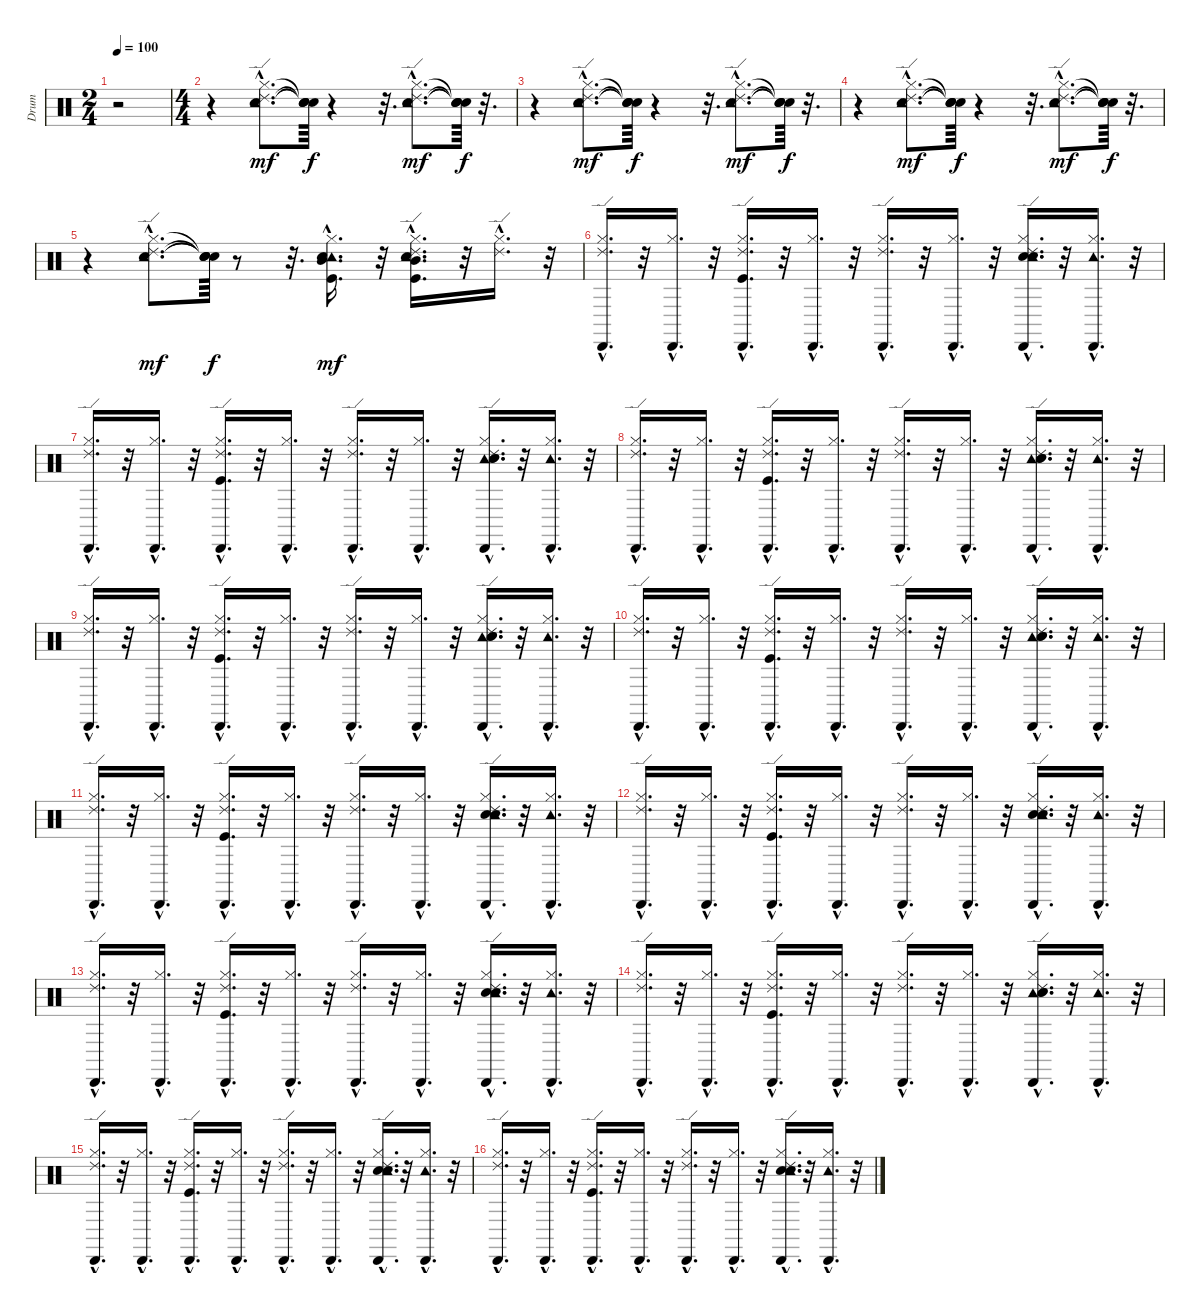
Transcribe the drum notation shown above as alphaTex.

\track ("Drum" "Drum") {instrument percussion}
\staff {score}
\articulation defaults
\ts (2 4)
\tempo 100
\clef neutral
\ks c
r.2{dy mf} |
\ts (4 4)
r.4 ("Ride (edge) 2"{hac} "Snare (hit) 2"{hac} "Hi-Hat (closed)"{hac} "Tambourine (hit)"{hac}).8{d} ("Snare (hit)"{t} "Snare (hit)"{t} "Snare (hit)"{t} "Snare (hit)"{t}).64{dy f} r.4 r.32{d} ("Snare (hit) 2"{hac} "Ride (edge) 2"{hac} "Hi-Hat (closed)"{hac} "Tambourine (hit)"{hac}).8{d dy mf} ("Snare (hit)"{t} "Snare (hit)"{t} "Snare (hit)"{t} "Snare (hit)"{t}).64{dy f} r.32{d} |
r.4 ("Tambourine (hit)"{hac} "Hi-Hat (closed)"{hac} "Snare (hit) 2"{hac} "Ride (edge) 2"{hac}).8{d dy mf} ("Snare (hit)"{t} "Snare (hit)"{t} "Snare (hit)"{t} "Snare (hit)"{t}).64{dy f} r.4 r.32{d} ("Tambourine (hit)"{hac} "Hi-Hat (closed)"{hac} "Ride (edge) 2"{hac} "Snare (hit) 2"{hac}).8{d dy mf} ("Snare (hit)"{t} "Snare (hit)"{t} "Snare (hit)"{t} "Snare (hit)"{t}).64{dy f} r.32{d} |
r.4 ("Tambourine (hit)"{hac} "Hi-Hat (closed)"{hac} "Snare (hit) 2"{hac} "Ride (edge) 2"{hac}).8{d dy mf} ("Snare (hit)"{t} "Snare (hit)"{t} "Snare (hit)"{t} "Snare (hit)"{t}).64{dy f} r.4 r.32{d} ("Tambourine (hit)"{hac} "Hi-Hat (closed)"{hac} "Ride (edge) 2"{hac} "Snare (hit) 2"{hac}).8{d dy mf} ("Snare (hit)"{t} "Snare (hit)"{t} "Snare (hit)"{t} "Snare (hit)"{t}).64{dy f} r.32{d} |
r.4 ("Tambourine (hit)"{hac} "Snare (hit) 2"{hac} "Ride (edge) 2"{hac} "Hi-Hat (closed)"{hac}).8{d dy mf} ("Snare (hit)"{t} "Snare (hit)"{t} "Snare (hit)"{t} "Snare (hit)"{t}).64{dy f} r.8 r.32{d} ("Kick (hit)"{hac} "Tambourine (hit)"{hac} "Snare (hit) 2"{hac} "Hi-Hat (closed)"{hac} "Mid Tom (hit)"{hac}).16{d dy mf} r.32 ("Ride (edge) 2"{hac} "Kick (hit)"{hac} "Tambourine (hit)"{hac} "Snare (hit) 2"{hac} "Hi-Hat (closed)"{hac} "Mid Tom (hit)"{hac}).16{d} r.32 ("Hi-Hat (closed)"{hac} "Ride (edge) 2"{hac}).16{d} r.32 |
("Ride (edge) 2"{hac} "Cabasa (hit)"{hac} "Hi-Hat (closed)"{hac}).16{d} r.32 ("Cabasa (hit)"{hac} "Hi-Hat (closed)"{hac}).16{d} r.32 ("Ride (edge) 2"{hac} "Cabasa (hit)"{hac} "Kick (hit)"{hac} "Hi-Hat (closed)"{hac}).16{d} r.32 ("Cabasa (hit)"{hac} "Hi-Hat (closed)"{hac}).16{d} r.32 ("Ride (edge) 2"{hac} "Cabasa (hit)"{hac} "Hi-Hat (closed)"{hac}).16{d} r.32 ("Cabasa (hit)"{hac} "Hi-Hat (closed)"{hac}).16{d} r.32 ("Electric Snare (hit)"{hac} "Ride (edge) 2"{hac} "Cabasa (hit)"{hac} "Snare (hit) 2"{hac} "Tambourine (hit)"{hac} "Hi-Hat (closed)"{hac}).16{d} r.32 ("Cabasa (hit)"{hac} "Tambourine (hit)"{hac} "Hi-Hat (closed)"{hac}).16{d} r.32 |
("Hi-Hat (closed)"{hac} "Cabasa (hit)"{hac} "Ride (edge) 2"{hac}).16{d} r.32 ("Hi-Hat (closed)"{hac} "Cabasa (hit)"{hac}).16{d} r.32 ("Hi-Hat (closed)"{hac} "Kick (hit)"{hac} "Cabasa (hit)"{hac} "Ride (edge) 2"{hac}).16{d} r.32 ("Hi-Hat (closed)"{hac} "Cabasa (hit)"{hac}).16{d} r.32 ("Hi-Hat (closed)"{hac} "Cabasa (hit)"{hac} "Ride (edge) 2"{hac}).16{d} r.32 ("Hi-Hat (closed)"{hac} "Cabasa (hit)"{hac}).16{d} r.32 ("Hi-Hat (closed)"{hac} "Tambourine (hit)"{hac} "Snare (hit) 2"{hac} "Cabasa (hit)"{hac} "Ride (edge) 2"{hac} "Electric Snare (hit)"{hac}).16{d} r.32 ("Hi-Hat (closed)"{hac} "Tambourine (hit)"{hac} "Cabasa (hit)"{hac}).16{d} r.32 |
("Hi-Hat (closed)"{hac} "Cabasa (hit)"{hac} "Ride (edge) 2"{hac}).16{d} r.32 ("Hi-Hat (closed)"{hac} "Cabasa (hit)"{hac}).16{d} r.32 ("Hi-Hat (closed)"{hac} "Kick (hit)"{hac} "Cabasa (hit)"{hac} "Ride (edge) 2"{hac}).16{d} r.32 ("Hi-Hat (closed)"{hac} "Cabasa (hit)"{hac}).16{d} r.32 ("Hi-Hat (closed)"{hac} "Cabasa (hit)"{hac} "Ride (edge) 2"{hac}).16{d} r.32 ("Hi-Hat (closed)"{hac} "Cabasa (hit)"{hac}).16{d} r.32 ("Hi-Hat (closed)"{hac} "Tambourine (hit)"{hac} "Snare (hit) 2"{hac} "Cabasa (hit)"{hac} "Ride (edge) 2"{hac} "Electric Snare (hit)"{hac}).16{d} r.32 ("Hi-Hat (closed)"{hac} "Tambourine (hit)"{hac} "Cabasa (hit)"{hac}).16{d} r.32 |
("Hi-Hat (closed)"{hac} "Cabasa (hit)"{hac} "Ride (edge) 2"{hac}).16{d} r.32 ("Hi-Hat (closed)"{hac} "Cabasa (hit)"{hac}).16{d} r.32 ("Hi-Hat (closed)"{hac} "Kick (hit)"{hac} "Cabasa (hit)"{hac} "Ride (edge) 2"{hac}).16{d} r.32 ("Hi-Hat (closed)"{hac} "Cabasa (hit)"{hac}).16{d} r.32 ("Hi-Hat (closed)"{hac} "Cabasa (hit)"{hac} "Ride (edge) 2"{hac}).16{d} r.32 ("Hi-Hat (closed)"{hac} "Cabasa (hit)"{hac}).16{d} r.32 ("Hi-Hat (closed)"{hac} "Tambourine (hit)"{hac} "Snare (hit) 2"{hac} "Cabasa (hit)"{hac} "Ride (edge) 2"{hac} "Electric Snare (hit)"{hac}).16{d} r.32 ("Hi-Hat (closed)"{hac} "Tambourine (hit)"{hac} "Cabasa (hit)"{hac}).16{d} r.32 |
("Hi-Hat (closed)"{hac} "Cabasa (hit)"{hac} "Ride (edge) 2"{hac}).16{d} r.32 ("Hi-Hat (closed)"{hac} "Cabasa (hit)"{hac}).16{d} r.32 ("Hi-Hat (closed)"{hac} "Kick (hit)"{hac} "Cabasa (hit)"{hac} "Ride (edge) 2"{hac}).16{d} r.32 ("Hi-Hat (closed)"{hac} "Cabasa (hit)"{hac}).16{d} r.32 ("Hi-Hat (closed)"{hac} "Cabasa (hit)"{hac} "Ride (edge) 2"{hac}).16{d} r.32 ("Hi-Hat (closed)"{hac} "Cabasa (hit)"{hac}).16{d} r.32 ("Hi-Hat (closed)"{hac} "Tambourine (hit)"{hac} "Snare (hit) 2"{hac} "Cabasa (hit)"{hac} "Ride (edge) 2"{hac} "Electric Snare (hit)"{hac}).16{d} r.32 ("Hi-Hat (closed)"{hac} "Tambourine (hit)"{hac} "Cabasa (hit)"{hac}).16{d} r.32 |
("Ride (edge) 2"{hac} "Cabasa (hit)"{hac} "Hi-Hat (closed)"{hac}).16{d} r.32 ("Cabasa (hit)"{hac} "Hi-Hat (closed)"{hac}).16{d} r.32 ("Ride (edge) 2"{hac} "Cabasa (hit)"{hac} "Kick (hit)"{hac} "Hi-Hat (closed)"{hac}).16{d} r.32 ("Cabasa (hit)"{hac} "Hi-Hat (closed)"{hac}).16{d} r.32 ("Ride (edge) 2"{hac} "Cabasa (hit)"{hac} "Hi-Hat (closed)"{hac}).16{d} r.32 ("Cabasa (hit)"{hac} "Hi-Hat (closed)"{hac}).16{d} r.32 ("Electric Snare (hit)"{hac} "Ride (edge) 2"{hac} "Cabasa (hit)"{hac} "Snare (hit) 2"{hac} "Tambourine (hit)"{hac} "Hi-Hat (closed)"{hac}).16{d} r.32 ("Cabasa (hit)"{hac} "Tambourine (hit)"{hac} "Hi-Hat (closed)"{hac}).16{d} r.32 |
("Ride (edge) 2"{hac} "Cabasa (hit)"{hac} "Hi-Hat (closed)"{hac}).16{d} r.32 ("Cabasa (hit)"{hac} "Hi-Hat (closed)"{hac}).16{d} r.32 ("Ride (edge) 2"{hac} "Cabasa (hit)"{hac} "Kick (hit)"{hac} "Hi-Hat (closed)"{hac}).16{d} r.32 ("Cabasa (hit)"{hac} "Hi-Hat (closed)"{hac}).16{d} r.32 ("Ride (edge) 2"{hac} "Cabasa (hit)"{hac} "Hi-Hat (closed)"{hac}).16{d} r.32 ("Cabasa (hit)"{hac} "Hi-Hat (closed)"{hac}).16{d} r.32 ("Electric Snare (hit)"{hac} "Ride (edge) 2"{hac} "Cabasa (hit)"{hac} "Snare (hit) 2"{hac} "Tambourine (hit)"{hac} "Hi-Hat (closed)"{hac}).16{d} r.32 ("Cabasa (hit)"{hac} "Tambourine (hit)"{hac} "Hi-Hat (closed)"{hac}).16{d} r.32 |
("Ride (edge) 2"{hac} "Cabasa (hit)"{hac} "Hi-Hat (closed)"{hac}).16{d} r.32 ("Cabasa (hit)"{hac} "Hi-Hat (closed)"{hac}).16{d} r.32 ("Ride (edge) 2"{hac} "Cabasa (hit)"{hac} "Kick (hit)"{hac} "Hi-Hat (closed)"{hac}).16{d} r.32 ("Cabasa (hit)"{hac} "Hi-Hat (closed)"{hac}).16{d} r.32 ("Ride (edge) 2"{hac} "Cabasa (hit)"{hac} "Hi-Hat (closed)"{hac}).16{d} r.32 ("Cabasa (hit)"{hac} "Hi-Hat (closed)"{hac}).16{d} r.32 ("Electric Snare (hit)"{hac} "Ride (edge) 2"{hac} "Cabasa (hit)"{hac} "Snare (hit) 2"{hac} "Tambourine (hit)"{hac} "Hi-Hat (closed)"{hac}).16{d} r.32 ("Cabasa (hit)"{hac} "Tambourine (hit)"{hac} "Hi-Hat (closed)"{hac}).16{d} r.32 |
("Hi-Hat (closed)"{hac} "Cabasa (hit)"{hac} "Ride (edge) 2"{hac}).16{d} r.32 ("Hi-Hat (closed)"{hac} "Cabasa (hit)"{hac}).16{d} r.32 ("Hi-Hat (closed)"{hac} "Kick (hit)"{hac} "Cabasa (hit)"{hac} "Ride (edge) 2"{hac}).16{d} r.32 ("Hi-Hat (closed)"{hac} "Cabasa (hit)"{hac}).16{d} r.32 ("Hi-Hat (closed)"{hac} "Cabasa (hit)"{hac} "Ride (edge) 2"{hac}).16{d} r.32 ("Hi-Hat (closed)"{hac} "Cabasa (hit)"{hac}).16{d} r.32 ("Hi-Hat (closed)"{hac} "Tambourine (hit)"{hac} "Snare (hit) 2"{hac} "Cabasa (hit)"{hac} "Ride (edge) 2"{hac} "Electric Snare (hit)"{hac}).16{d} r.32 ("Hi-Hat (closed)"{hac} "Tambourine (hit)"{hac} "Cabasa (hit)"{hac}).16{d} r.32 |
("Ride (edge) 2"{hac} "Cabasa (hit)"{hac} "Hi-Hat (closed)"{hac}).16{d} r.32 ("Cabasa (hit)"{hac} "Hi-Hat (closed)"{hac}).16{d} r.32 ("Ride (edge) 2"{hac} "Cabasa (hit)"{hac} "Kick (hit)"{hac} "Hi-Hat (closed)"{hac}).16{d} r.32 ("Cabasa (hit)"{hac} "Hi-Hat (closed)"{hac}).16{d} r.32 ("Ride (edge) 2"{hac} "Cabasa (hit)"{hac} "Hi-Hat (closed)"{hac}).16{d} r.32 ("Cabasa (hit)"{hac} "Hi-Hat (closed)"{hac}).16{d} r.32 ("Electric Snare (hit)"{hac} "Ride (edge) 2"{hac} "Cabasa (hit)"{hac} "Snare (hit) 2"{hac} "Tambourine (hit)"{hac} "Hi-Hat (closed)"{hac}).16{d} r.32 ("Cabasa (hit)"{hac} "Tambourine (hit)"{hac} "Hi-Hat (closed)"{hac}).16{d} r.32 |
("Ride (edge) 2"{hac} "Cabasa (hit)"{hac} "Hi-Hat (closed)"{hac}).16{d} r.32 ("Cabasa (hit)"{hac} "Hi-Hat (closed)"{hac}).16{d} r.32 ("Ride (edge) 2"{hac} "Cabasa (hit)"{hac} "Kick (hit)"{hac} "Hi-Hat (closed)"{hac}).16{d} r.32 ("Cabasa (hit)"{hac} "Hi-Hat (closed)"{hac}).16{d} r.32 ("Ride (edge) 2"{hac} "Cabasa (hit)"{hac} "Hi-Hat (closed)"{hac}).16{d} r.32 ("Cabasa (hit)"{hac} "Hi-Hat (closed)"{hac}).16{d} r.32 ("Electric Snare (hit)"{hac} "Ride (edge) 2"{hac} "Cabasa (hit)"{hac} "Snare (hit) 2"{hac} "Tambourine (hit)"{hac} "Hi-Hat (closed)"{hac}).16{d} r.32 ("Cabasa (hit)"{hac} "Tambourine (hit)"{hac} "Hi-Hat (closed)"{hac}).16{d} r.32
